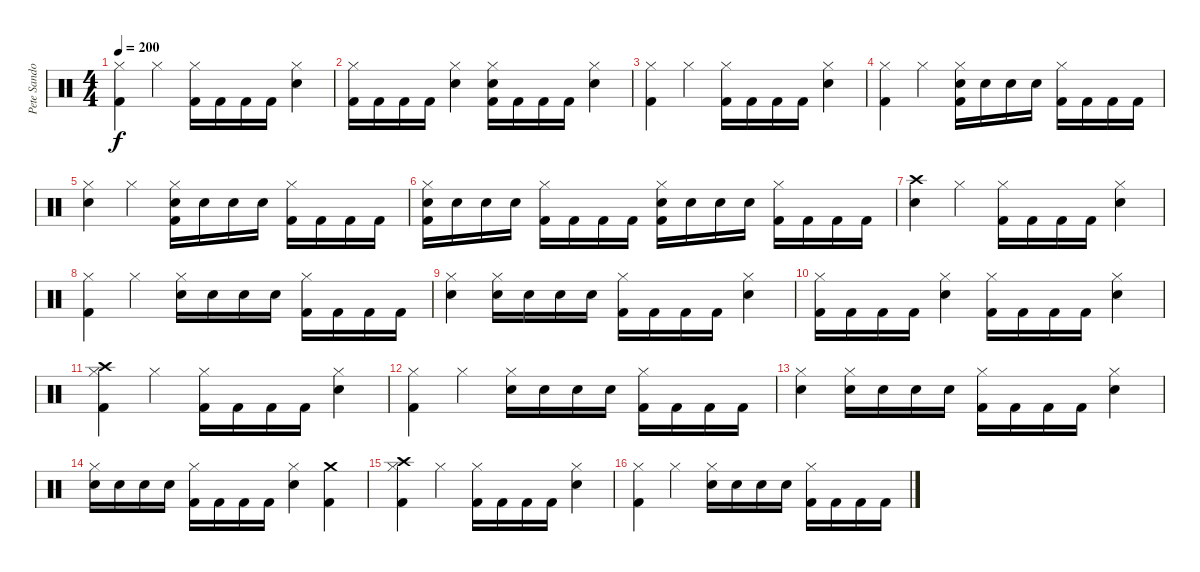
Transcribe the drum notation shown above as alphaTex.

\track ("Pete Sandoval" "Pete Sando") {instrument percussion}
\staff {score}
\articulation defaults
\ts (4 4)
\tempo 200
\clef neutral
\ks c
("Hi-Hat (closed)" "Kick (hit) 2").4{dy f} "Hi-Hat (closed)".4 ("Hi-Hat (closed)" "Kick (hit) 2").16 "Kick (hit) 2".16 "Kick (hit) 2".16 "Kick (hit) 2".16 ("Hi-Hat (closed)" "Electric Snare (hit)").4 |
("Hi-Hat (closed)" "Kick (hit) 2").16 "Kick (hit) 2".16 "Kick (hit) 2".16 "Kick (hit) 2".16 ("Hi-Hat (closed)" "Electric Snare (hit)").4 ("Hi-Hat (closed)" "Electric Snare (hit)" "Kick (hit) 2").16 "Kick (hit) 2".16 "Kick (hit) 2".16 "Kick (hit) 2".16 ("Hi-Hat (closed)" "Electric Snare (hit)").4 |
("Hi-Hat (closed)" "Kick (hit) 2").4 "Hi-Hat (closed)".4 ("Hi-Hat (closed)" "Kick (hit) 2").16 "Kick (hit) 2".16 "Kick (hit) 2".16 "Kick (hit) 2".16 ("Hi-Hat (closed)" "Electric Snare (hit)").4 |
("Hi-Hat (closed)" "Kick (hit) 2").4 "Hi-Hat (closed)".4 ("Hi-Hat (closed)" "Kick (hit) 2" "Electric Snare (hit)").16 "Electric Snare (hit)".16 "Electric Snare (hit)".16 "Electric Snare (hit)".16 ("Hi-Hat (closed)" "Kick (hit) 2").16 "Kick (hit) 2".16 "Kick (hit) 2".16 "Kick (hit) 2".16 |
("Hi-Hat (closed)" "Electric Snare (hit)").4 "Hi-Hat (closed)".4 ("Hi-Hat (closed)" "Kick (hit) 2" "Electric Snare (hit)").16 "Electric Snare (hit)".16 "Electric Snare (hit)".16 "Electric Snare (hit)".16 ("Hi-Hat (closed)" "Kick (hit) 2").16 "Kick (hit) 2".16 "Kick (hit) 2".16 "Kick (hit) 2".16 |
("Hi-Hat (closed)" "Kick (hit) 2" "Electric Snare (hit)").16 "Electric Snare (hit)".16 "Electric Snare (hit)".16 "Electric Snare (hit)".16 ("Hi-Hat (closed)" "Kick (hit) 2").16 "Kick (hit) 2".16 "Kick (hit) 2".16 "Kick (hit) 2".16 ("Hi-Hat (closed)" "Kick (hit) 2" "Electric Snare (hit)").16 "Electric Snare (hit)".16 "Electric Snare (hit)".16 "Electric Snare (hit)".16 ("Hi-Hat (closed)" "Kick (hit) 2").16 "Kick (hit) 2".16 "Kick (hit) 2".16 "Kick (hit) 2".16 |
("Crash high (hit)" "Electric Snare (hit)").4 "Hi-Hat (closed)".4 ("Hi-Hat (closed)" "Kick (hit) 2").16 "Kick (hit) 2".16 "Kick (hit) 2".16 "Kick (hit) 2".16 ("Hi-Hat (closed)" "Electric Snare (hit)").4 |
("Hi-Hat (closed)" "Kick (hit) 2").4 "Hi-Hat (closed)".4 ("Hi-Hat (closed)" "Electric Snare (hit)").16 "Electric Snare (hit)".16 "Electric Snare (hit)".16 "Electric Snare (hit)".16 ("Hi-Hat (closed)" "Kick (hit) 2").16 "Kick (hit) 2".16 "Kick (hit) 2".16 "Kick (hit) 2".16 |
("Hi-Hat (closed)" "Electric Snare (hit)").4 ("Hi-Hat (closed)" "Electric Snare (hit)").16 "Electric Snare (hit)".16 "Electric Snare (hit)".16 "Electric Snare (hit)".16 ("Hi-Hat (closed)" "Kick (hit) 2").16 "Kick (hit) 2".16 "Kick (hit) 2".16 "Kick (hit) 2".16 ("Hi-Hat (closed)" "Electric Snare (hit)").4 |
("Hi-Hat (closed)" "Kick (hit) 2").16 "Kick (hit) 2".16 "Kick (hit) 2".16 "Kick (hit) 2".16 ("Hi-Hat (closed)" "Electric Snare (hit)").4 ("Hi-Hat (closed)" "Kick (hit) 2").16 "Kick (hit) 2".16 "Kick (hit) 2".16 "Kick (hit) 2".16 ("Hi-Hat (closed)" "Electric Snare (hit)").4 |
("Crash high (hit)" "Hi-Hat (closed)" "Kick (hit) 2").4 "Hi-Hat (closed)".4 ("Hi-Hat (closed)" "Kick (hit) 2").16 "Kick (hit) 2".16 "Kick (hit) 2".16 "Kick (hit) 2".16 ("Hi-Hat (closed)" "Electric Snare (hit)").4 |
("Hi-Hat (closed)" "Kick (hit) 2").4 "Hi-Hat (closed)".4 ("Hi-Hat (closed)" "Electric Snare (hit)").16 "Electric Snare (hit)".16 "Electric Snare (hit)".16 "Electric Snare (hit)".16 ("Hi-Hat (closed)" "Kick (hit) 2").16 "Kick (hit) 2".16 "Kick (hit) 2".16 "Kick (hit) 2".16 |
("Hi-Hat (closed)" "Electric Snare (hit)").4 ("Hi-Hat (closed)" "Electric Snare (hit)").16 "Electric Snare (hit)".16 "Electric Snare (hit)".16 "Electric Snare (hit)".16 ("Hi-Hat (closed)" "Kick (hit) 2").16 "Kick (hit) 2".16 "Kick (hit) 2".16 "Kick (hit) 2".16 ("Hi-Hat (closed)" "Electric Snare (hit)").4 |
("Hi-Hat (closed)" "Electric Snare (hit)").16 "Electric Snare (hit)".16 "Electric Snare (hit)".16 "Electric Snare (hit)".16 ("Hi-Hat (closed)" "Kick (hit) 2").16 "Kick (hit) 2".16 "Kick (hit) 2".16 "Kick (hit) 2".16 ("Hi-Hat (closed)" "Electric Snare (hit)").4 ("Crash medium (hit)" "Kick (hit) 2").4 |
("Crash high (hit)" "Hi-Hat (closed)" "Kick (hit) 2").4 "Hi-Hat (closed)".4 ("Hi-Hat (closed)" "Kick (hit) 2").16 "Kick (hit) 2".16 "Kick (hit) 2".16 "Kick (hit) 2".16 ("Hi-Hat (closed)" "Electric Snare (hit)").4 |
("Hi-Hat (closed)" "Kick (hit) 2").4 "Hi-Hat (closed)".4 ("Hi-Hat (closed)" "Electric Snare (hit)").16 "Electric Snare (hit)".16 "Electric Snare (hit)".16 "Electric Snare (hit)".16 ("Hi-Hat (closed)" "Kick (hit) 2").16 "Kick (hit) 2".16 "Kick (hit) 2".16 "Kick (hit) 2".16
